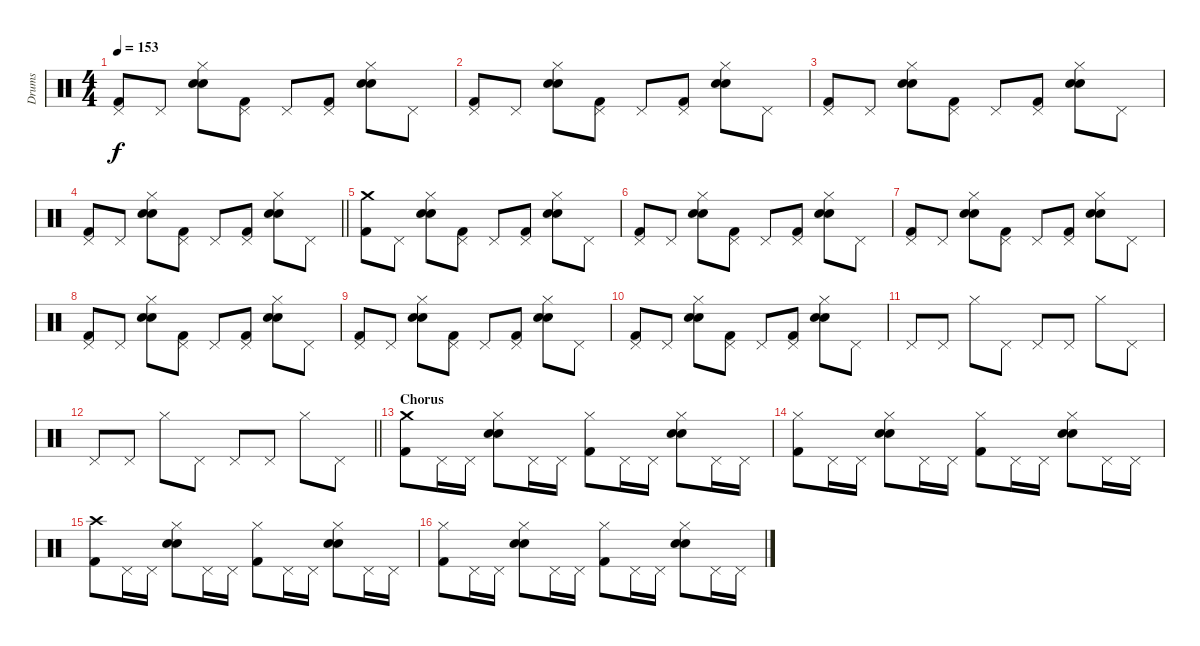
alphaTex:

\track ("Drums" "Drums") {instrument percussion}
\staff {score}
\articulation defaults
\ts (4 4)
\tempo 153
\clef neutral
\ks c
("Pedal Hi-Hat (hit)" "Kick (hit) 2").8{dy f} "Pedal Hi-Hat (hit)".8 ("Hi-Hat (closed)" "Electric Snare (hit)" "Snare (hit) 2").8 ("Pedal Hi-Hat (hit)" "Kick (hit) 2").8 "Pedal Hi-Hat (hit)".8 ("Pedal Hi-Hat (hit)" "Kick (hit) 2").8 ("Hi-Hat (closed)" "Electric Snare (hit)" "Snare (hit) 2").8 "Pedal Hi-Hat (hit)".8 |
("Pedal Hi-Hat (hit)" "Kick (hit) 2").8 "Pedal Hi-Hat (hit)".8 ("Hi-Hat (closed)" "Electric Snare (hit)" "Snare (hit) 2").8 ("Pedal Hi-Hat (hit)" "Kick (hit) 2").8 "Pedal Hi-Hat (hit)".8 ("Pedal Hi-Hat (hit)" "Kick (hit) 2").8 ("Hi-Hat (closed)" "Electric Snare (hit)" "Snare (hit) 2").8 "Pedal Hi-Hat (hit)".8 |
("Pedal Hi-Hat (hit)" "Kick (hit) 2").8 "Pedal Hi-Hat (hit)".8 ("Hi-Hat (closed)" "Electric Snare (hit)" "Snare (hit) 2").8 ("Pedal Hi-Hat (hit)" "Kick (hit) 2").8 "Pedal Hi-Hat (hit)".8 ("Pedal Hi-Hat (hit)" "Kick (hit) 2").8 ("Hi-Hat (closed)" "Electric Snare (hit)" "Snare (hit) 2").8 "Pedal Hi-Hat (hit)".8 |
\barLineRight lightlight
("Pedal Hi-Hat (hit)" "Kick (hit) 2").8 "Pedal Hi-Hat (hit)".8 ("Hi-Hat (closed)" "Electric Snare (hit)" "Snare (hit) 2").8 ("Pedal Hi-Hat (hit)" "Kick (hit) 2").8 "Pedal Hi-Hat (hit)".8 ("Pedal Hi-Hat (hit)" "Kick (hit) 2").8 ("Hi-Hat (closed)" "Electric Snare (hit)" "Snare (hit) 2").8 "Pedal Hi-Hat (hit)".8 |
\section ("" "")
("Crash medium (hit)" "Kick (hit) 2").8 "Pedal Hi-Hat (hit)".8 ("Hi-Hat (closed)" "Electric Snare (hit)" "Snare (hit) 2").8 ("Pedal Hi-Hat (hit)" "Kick (hit) 2").8 "Pedal Hi-Hat (hit)".8 ("Pedal Hi-Hat (hit)" "Kick (hit) 2").8 ("Hi-Hat (closed)" "Electric Snare (hit)" "Snare (hit) 2").8 "Pedal Hi-Hat (hit)".8 |
("Pedal Hi-Hat (hit)" "Kick (hit) 2").8 "Pedal Hi-Hat (hit)".8 ("Hi-Hat (closed)" "Electric Snare (hit)" "Snare (hit) 2").8 ("Pedal Hi-Hat (hit)" "Kick (hit) 2").8 "Pedal Hi-Hat (hit)".8 ("Pedal Hi-Hat (hit)" "Kick (hit) 2").8 ("Hi-Hat (closed)" "Electric Snare (hit)" "Snare (hit) 2").8 "Pedal Hi-Hat (hit)".8 |
("Pedal Hi-Hat (hit)" "Kick (hit) 2").8 "Pedal Hi-Hat (hit)".8 ("Hi-Hat (closed)" "Electric Snare (hit)" "Snare (hit) 2").8 ("Pedal Hi-Hat (hit)" "Kick (hit) 2").8 "Pedal Hi-Hat (hit)".8 ("Pedal Hi-Hat (hit)" "Kick (hit) 2").8 ("Hi-Hat (closed)" "Electric Snare (hit)" "Snare (hit) 2").8 "Pedal Hi-Hat (hit)".8 |
("Pedal Hi-Hat (hit)" "Kick (hit) 2").8 "Pedal Hi-Hat (hit)".8 ("Hi-Hat (closed)" "Electric Snare (hit)" "Snare (hit) 2").8 ("Pedal Hi-Hat (hit)" "Kick (hit) 2").8 "Pedal Hi-Hat (hit)".8 ("Pedal Hi-Hat (hit)" "Kick (hit) 2").8 ("Hi-Hat (closed)" "Electric Snare (hit)" "Snare (hit) 2").8 "Pedal Hi-Hat (hit)".8 |
("Pedal Hi-Hat (hit)" "Kick (hit) 2").8 "Pedal Hi-Hat (hit)".8 ("Hi-Hat (closed)" "Electric Snare (hit)" "Snare (hit) 2").8 ("Pedal Hi-Hat (hit)" "Kick (hit) 2").8 "Pedal Hi-Hat (hit)".8 ("Pedal Hi-Hat (hit)" "Kick (hit) 2").8 ("Hi-Hat (closed)" "Electric Snare (hit)" "Snare (hit) 2").8 "Pedal Hi-Hat (hit)".8 |
("Pedal Hi-Hat (hit)" "Kick (hit) 2").8 "Pedal Hi-Hat (hit)".8 ("Hi-Hat (closed)" "Electric Snare (hit)" "Snare (hit) 2").8 ("Pedal Hi-Hat (hit)" "Kick (hit) 2").8 "Pedal Hi-Hat (hit)".8 ("Pedal Hi-Hat (hit)" "Kick (hit) 2").8 ("Hi-Hat (closed)" "Electric Snare (hit)" "Snare (hit) 2").8 "Pedal Hi-Hat (hit)".8 |
"Pedal Hi-Hat (hit)".8 "Pedal Hi-Hat (hit)".8 "Hi-Hat (closed)".8 "Pedal Hi-Hat (hit)".8 "Pedal Hi-Hat (hit)".8 "Pedal Hi-Hat (hit)".8 "Hi-Hat (closed)".8 "Pedal Hi-Hat (hit)".8 |
\barLineRight lightlight "Pedal Hi-Hat (hit)".8 "Pedal Hi-Hat (hit)".8 "Hi-Hat (closed)".8 "Pedal Hi-Hat (hit)".8 "Pedal Hi-Hat (hit)".8 "Pedal Hi-Hat (hit)".8 "Hi-Hat (closed)".8 "Pedal Hi-Hat (hit)".8
|
\section ("" "Chorus")
("Crash medium (hit)" "Kick (hit) 2").8 "Pedal Hi-Hat (hit)".16 "Pedal Hi-Hat (hit)".16 ("Hi-Hat (closed)" "Electric Snare (hit)" "Snare (hit) 2").8 "Pedal Hi-Hat (hit)".16 "Pedal Hi-Hat (hit)".16 ("Hi-Hat (closed)" "Kick (hit) 2").8 "Pedal Hi-Hat (hit)".16 "Pedal Hi-Hat (hit)".16 ("Hi-Hat (closed)" "Electric Snare (hit)" "Snare (hit) 2").8 "Pedal Hi-Hat (hit)".16 "Pedal Hi-Hat (hit)".16 |
("Hi-Hat (closed)" "Kick (hit) 2").8 "Pedal Hi-Hat (hit)".16 "Pedal Hi-Hat (hit)".16 ("Hi-Hat (closed)" "Electric Snare (hit)" "Snare (hit) 2").8 "Pedal Hi-Hat (hit)".16 "Pedal Hi-Hat (hit)".16 ("Hi-Hat (closed)" "Kick (hit) 2").8 "Pedal Hi-Hat (hit)".16 "Pedal Hi-Hat (hit)".16 ("Hi-Hat (closed)" "Electric Snare (hit)" "Snare (hit) 2").8 "Pedal Hi-Hat (hit)".16 "Pedal Hi-Hat (hit)".16 |
("Crash high (hit)" "Kick (hit) 2").8 "Pedal Hi-Hat (hit)".16 "Pedal Hi-Hat (hit)".16 ("Hi-Hat (closed)" "Electric Snare (hit)" "Snare (hit) 2").8 "Pedal Hi-Hat (hit)".16 "Pedal Hi-Hat (hit)".16 ("Hi-Hat (closed)" "Kick (hit) 2").8 "Pedal Hi-Hat (hit)".16 "Pedal Hi-Hat (hit)".16 ("Hi-Hat (closed)" "Electric Snare (hit)" "Snare (hit) 2").8 "Pedal Hi-Hat (hit)".16 "Pedal Hi-Hat (hit)".16 |
("Hi-Hat (closed)" "Kick (hit) 2").8 "Pedal Hi-Hat (hit)".16 "Pedal Hi-Hat (hit)".16 ("Hi-Hat (closed)" "Electric Snare (hit)" "Snare (hit) 2").8 "Pedal Hi-Hat (hit)".16 "Pedal Hi-Hat (hit)".16 ("Hi-Hat (closed)" "Kick (hit) 2").8 "Pedal Hi-Hat (hit)".16 "Pedal Hi-Hat (hit)".16 ("Hi-Hat (closed)" "Electric Snare (hit)" "Snare (hit) 2").8 "Pedal Hi-Hat (hit)".16 "Pedal Hi-Hat (hit)".16
